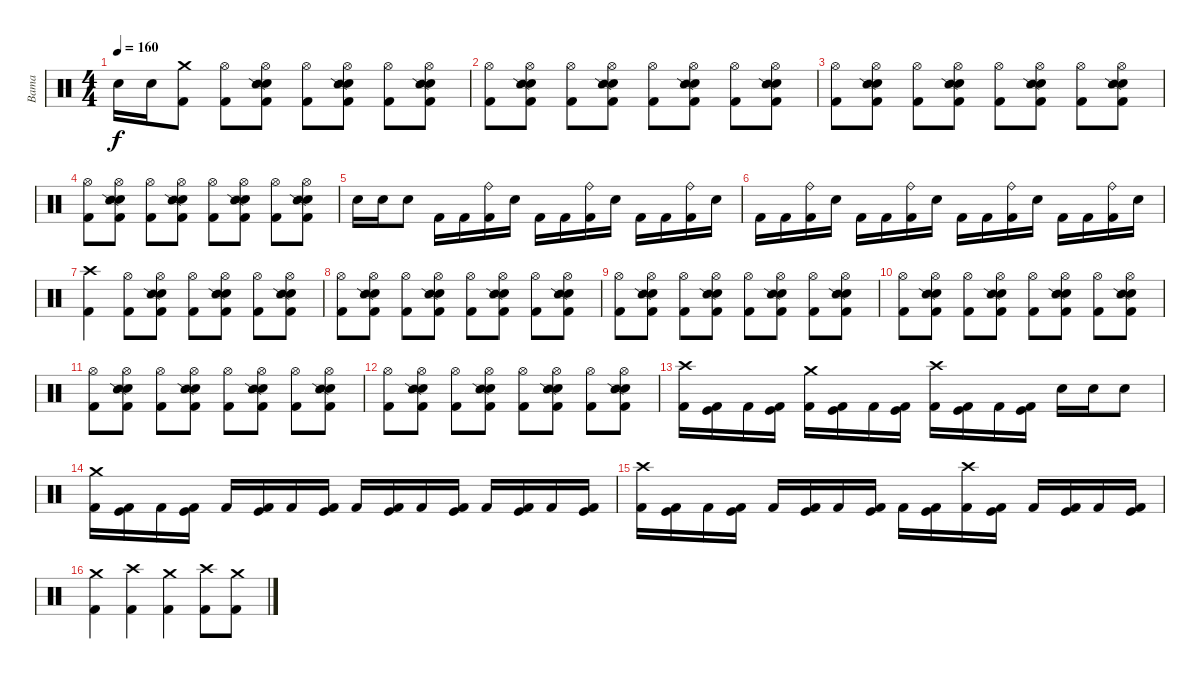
\track ("Bama" "Bama") {instrument percussion}
\staff {score}
\articulation defaults
\ts (4 4)
\tempo 160
\clef neutral
\ks c "Electric Snare (hit)".16{dy f} "Electric Snare (hit)".16
("Crash medium (hit)" "Kick (hit) 2").8 ("Hi-Hat (open)" "Kick (hit) 2").8 ("Hi-Hat (open)" "Electric Snare (hit)" "Snare (side stick) 2" "Kick (hit) 2").8 ("Hi-Hat (open)" "Kick (hit) 2").8 ("Hi-Hat (open)" "Electric Snare (hit)" "Snare (side stick) 2" "Kick (hit) 2").8 ("Hi-Hat (open)" "Kick (hit) 2").8 ("Hi-Hat (open)" "Electric Snare (hit)" "Snare (side stick) 2" "Kick (hit) 2").8 |
("Hi-Hat (open)" "Kick (hit) 2").8 ("Hi-Hat (open)" "Electric Snare (hit)" "Snare (side stick) 2" "Kick (hit) 2").8 ("Hi-Hat (open)" "Kick (hit) 2").8 ("Hi-Hat (open)" "Electric Snare (hit)" "Snare (side stick) 2" "Kick (hit) 2").8 ("Hi-Hat (open)" "Kick (hit) 2").8 ("Hi-Hat (open)" "Electric Snare (hit)" "Snare (side stick) 2" "Kick (hit) 2").8 ("Hi-Hat (open)" "Kick (hit) 2").8 ("Hi-Hat (open)" "Electric Snare (hit)" "Snare (side stick) 2" "Kick (hit) 2").8 |
("Hi-Hat (open)" "Kick (hit) 2").8 ("Hi-Hat (open)" "Electric Snare (hit)" "Snare (side stick) 2" "Kick (hit) 2").8 ("Hi-Hat (open)" "Kick (hit) 2").8 ("Hi-Hat (open)" "Electric Snare (hit)" "Snare (side stick) 2" "Kick (hit) 2").8 ("Hi-Hat (open)" "Kick (hit) 2").8 ("Hi-Hat (open)" "Electric Snare (hit)" "Snare (side stick) 2" "Kick (hit) 2").8 ("Hi-Hat (open)" "Kick (hit) 2").8 ("Hi-Hat (open)" "Electric Snare (hit)" "Snare (side stick) 2" "Kick (hit) 2").8 |
("Hi-Hat (open)" "Kick (hit) 2").8 ("Hi-Hat (open)" "Electric Snare (hit)" "Snare (side stick) 2" "Kick (hit) 2").8 ("Hi-Hat (open)" "Kick (hit) 2").8 ("Hi-Hat (open)" "Electric Snare (hit)" "Snare (side stick) 2" "Kick (hit) 2").8 ("Hi-Hat (open)" "Kick (hit) 2").8 ("Hi-Hat (open)" "Electric Snare (hit)" "Snare (side stick) 2" "Kick (hit) 2").8 ("Hi-Hat (open)" "Kick (hit) 2").8 ("Hi-Hat (open)" "Electric Snare (hit)" "Snare (side stick) 2" "Kick (hit) 2").8 |
"Electric Snare (hit)".16 "Electric Snare (hit)".16 "Electric Snare (hit)".8 "Kick (hit) 2".16 "Kick (hit) 2".16 ("Ride (bell)" "Kick (hit) 2").16 "Electric Snare (hit)".16 "Kick (hit) 2".16 "Kick (hit) 2".16 ("Ride (bell)" "Kick (hit) 2").16 "Electric Snare (hit)".16 "Kick (hit) 2".16 "Kick (hit) 2".16 ("Ride (bell)" "Kick (hit) 2").16 "Electric Snare (hit)".16 |
"Kick (hit) 2".16 "Kick (hit) 2".16 ("Ride (bell)" "Kick (hit) 2").16 "Electric Snare (hit)".16 "Kick (hit) 2".16 "Kick (hit) 2".16 ("Ride (bell)" "Kick (hit) 2").16 "Electric Snare (hit)".16 "Kick (hit) 2".16 "Kick (hit) 2".16 ("Ride (bell)" "Kick (hit) 2").16 "Electric Snare (hit)".16 "Kick (hit) 2".16 "Kick (hit) 2".16 ("Ride (bell)" "Kick (hit) 2").16 "Electric Snare (hit)".16 |
("Crash high (hit)" "Kick (hit) 2").4 ("Hi-Hat (open)" "Kick (hit) 2").8 ("Hi-Hat (open)" "Electric Snare (hit)" "Snare (side stick) 2" "Kick (hit) 2").8 ("Hi-Hat (open)" "Kick (hit) 2").8 ("Hi-Hat (open)" "Electric Snare (hit)" "Snare (side stick) 2" "Kick (hit) 2").8 ("Hi-Hat (open)" "Kick (hit) 2").8 ("Hi-Hat (open)" "Electric Snare (hit)" "Snare (side stick) 2" "Kick (hit) 2").8 |
("Hi-Hat (open)" "Kick (hit) 2").8 ("Hi-Hat (open)" "Electric Snare (hit)" "Snare (side stick) 2" "Kick (hit) 2").8 ("Hi-Hat (open)" "Kick (hit) 2").8 ("Hi-Hat (open)" "Electric Snare (hit)" "Snare (side stick) 2" "Kick (hit) 2").8 ("Hi-Hat (open)" "Kick (hit) 2").8 ("Hi-Hat (open)" "Electric Snare (hit)" "Snare (side stick) 2" "Kick (hit) 2").8 ("Hi-Hat (open)" "Kick (hit) 2").8 ("Hi-Hat (open)" "Electric Snare (hit)" "Snare (side stick) 2" "Kick (hit) 2").8 |
("Hi-Hat (open)" "Kick (hit) 2").8 ("Hi-Hat (open)" "Electric Snare (hit)" "Snare (side stick) 2" "Kick (hit) 2").8 ("Hi-Hat (open)" "Kick (hit) 2").8 ("Hi-Hat (open)" "Electric Snare (hit)" "Snare (side stick) 2" "Kick (hit) 2").8 ("Hi-Hat (open)" "Kick (hit) 2").8 ("Hi-Hat (open)" "Electric Snare (hit)" "Snare (side stick) 2" "Kick (hit) 2").8 ("Hi-Hat (open)" "Kick (hit) 2").8 ("Hi-Hat (open)" "Electric Snare (hit)" "Snare (side stick) 2" "Kick (hit) 2").8 |
("Hi-Hat (open)" "Kick (hit) 2").8 ("Hi-Hat (open)" "Electric Snare (hit)" "Snare (side stick) 2" "Kick (hit) 2").8 ("Hi-Hat (open)" "Kick (hit) 2").8 ("Hi-Hat (open)" "Electric Snare (hit)" "Snare (side stick) 2" "Kick (hit) 2").8 ("Hi-Hat (open)" "Kick (hit) 2").8 ("Hi-Hat (open)" "Electric Snare (hit)" "Snare (side stick) 2" "Kick (hit) 2").8 ("Hi-Hat (open)" "Kick (hit) 2").8 ("Hi-Hat (open)" "Electric Snare (hit)" "Snare (side stick) 2" "Kick (hit) 2").8 |
("Hi-Hat (open)" "Kick (hit) 2").8 ("Hi-Hat (open)" "Electric Snare (hit)" "Snare (side stick) 2" "Kick (hit) 2").8 ("Hi-Hat (open)" "Kick (hit) 2").8 ("Hi-Hat (open)" "Electric Snare (hit)" "Snare (side stick) 2" "Kick (hit) 2").8 ("Hi-Hat (open)" "Kick (hit) 2").8 ("Hi-Hat (open)" "Electric Snare (hit)" "Snare (side stick) 2" "Kick (hit) 2").8 ("Hi-Hat (open)" "Kick (hit) 2").8 ("Hi-Hat (open)" "Electric Snare (hit)" "Snare (side stick) 2" "Kick (hit) 2").8 |
("Hi-Hat (open)" "Kick (hit) 2").8 ("Hi-Hat (open)" "Electric Snare (hit)" "Snare (side stick) 2" "Kick (hit) 2").8 ("Hi-Hat (open)" "Kick (hit) 2").8 ("Hi-Hat (open)" "Electric Snare (hit)" "Snare (side stick) 2" "Kick (hit) 2").8 ("Hi-Hat (open)" "Kick (hit) 2").8 ("Hi-Hat (open)" "Electric Snare (hit)" "Snare (side stick) 2" "Kick (hit) 2").8 ("Hi-Hat (open)" "Kick (hit) 2").8 ("Hi-Hat (open)" "Electric Snare (hit)" "Snare (side stick) 2" "Kick (hit) 2").8 |
("Crash high (hit)" "Kick (hit) 2").16 ("Kick (hit)" "Kick (hit) 2").16 "Kick (hit) 2".16 ("Kick (hit)" "Kick (hit) 2").16 ("Crash medium (hit)" "Kick (hit) 2").16 ("Kick (hit)" "Kick (hit) 2").16 "Kick (hit) 2".16 ("Kick (hit)" "Kick (hit) 2").16 ("Crash high (hit)" "Kick (hit) 2").16 ("Kick (hit)" "Kick (hit) 2").16 "Kick (hit) 2".16 ("Kick (hit)" "Kick (hit) 2").16 "Electric Snare (hit)".16 "Electric Snare (hit)".16 "Electric Snare (hit)".8 |
("Crash medium (hit)" "Kick (hit) 2").16 ("Kick (hit)" "Kick (hit) 2").16 "Kick (hit) 2".16 ("Kick (hit)" "Kick (hit) 2").16 "Kick (hit) 2".16 ("Kick (hit)" "Kick (hit) 2").16 "Kick (hit) 2".16 ("Kick (hit)" "Kick (hit) 2").16 "Kick (hit) 2".16 ("Kick (hit)" "Kick (hit) 2").16 "Kick (hit) 2".16 ("Kick (hit)" "Kick (hit) 2").16 "Kick (hit) 2".16 ("Kick (hit)" "Kick (hit) 2").16 "Kick (hit) 2".16 ("Kick (hit)" "Kick (hit) 2").16 |
("Crash high (hit)" "Kick (hit) 2").16 ("Kick (hit)" "Kick (hit) 2").16 "Kick (hit) 2".16 ("Kick (hit)" "Kick (hit) 2").16 "Kick (hit) 2".16 ("Kick (hit)" "Kick (hit) 2").16 "Kick (hit) 2".16 ("Kick (hit)" "Kick (hit) 2").16 "Kick (hit) 2".16 ("Kick (hit)" "Kick (hit) 2").16 ("Crash high (hit)" "Kick (hit) 2").16 ("Kick (hit)" "Kick (hit) 2").16 "Kick (hit) 2".16 ("Kick (hit)" "Kick (hit) 2").16 "Kick (hit) 2".16 ("Kick (hit)" "Kick (hit) 2").16 |
("Crash medium (hit)" "Kick (hit) 2").4 ("Crash high (hit)" "Kick (hit) 2").4 ("Crash medium (hit)" "Kick (hit) 2").4 ("Crash high (hit)" "Kick (hit) 2").8 ("Crash medium (hit)" "Kick (hit) 2").8
